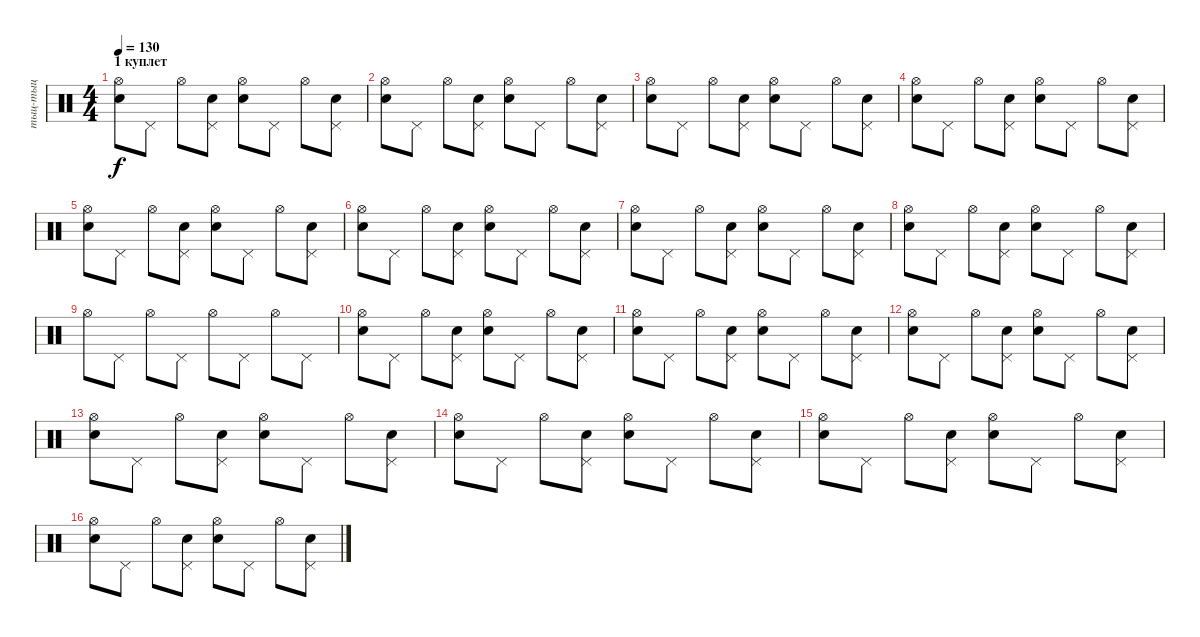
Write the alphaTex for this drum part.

\track ("тыц-тыц" "тыц-тыц") {instrument percussion}
\staff {score}
\articulation defaults
\ts (4 4)
\section ("" "1 куплет")
\tempo 130
\clef neutral
\ks c
("Hi-Hat (open)" "Snare (hit) 2").8{dy f} "Pedal Hi-Hat (hit)".8 "Hi-Hat (open)".8 ("Pedal Hi-Hat (hit)" "Snare (hit) 2").8 ("Hi-Hat (open)" "Snare (hit) 2").8 "Pedal Hi-Hat (hit)".8 "Hi-Hat (open)".8 ("Pedal Hi-Hat (hit)" "Snare (hit) 2").8 |
("Hi-Hat (open)" "Snare (hit) 2").8 "Pedal Hi-Hat (hit)".8 "Hi-Hat (open)".8 ("Pedal Hi-Hat (hit)" "Snare (hit) 2").8 ("Hi-Hat (open)" "Snare (hit) 2").8 "Pedal Hi-Hat (hit)".8 "Hi-Hat (open)".8 ("Pedal Hi-Hat (hit)" "Snare (hit) 2").8 |
("Hi-Hat (open)" "Snare (hit) 2").8 "Pedal Hi-Hat (hit)".8 "Hi-Hat (open)".8 ("Pedal Hi-Hat (hit)" "Snare (hit) 2").8 ("Hi-Hat (open)" "Snare (hit) 2").8 "Pedal Hi-Hat (hit)".8 "Hi-Hat (open)".8 ("Pedal Hi-Hat (hit)" "Snare (hit) 2").8 |
("Hi-Hat (open)" "Snare (hit) 2").8 "Pedal Hi-Hat (hit)".8 "Hi-Hat (open)".8 ("Pedal Hi-Hat (hit)" "Snare (hit) 2").8 ("Hi-Hat (open)" "Snare (hit) 2").8 "Pedal Hi-Hat (hit)".8 "Hi-Hat (open)".8 ("Pedal Hi-Hat (hit)" "Snare (hit) 2").8 |
("Hi-Hat (open)" "Snare (hit) 2").8 "Pedal Hi-Hat (hit)".8 "Hi-Hat (open)".8 ("Pedal Hi-Hat (hit)" "Snare (hit) 2").8 ("Hi-Hat (open)" "Snare (hit) 2").8 "Pedal Hi-Hat (hit)".8 "Hi-Hat (open)".8 ("Pedal Hi-Hat (hit)" "Snare (hit) 2").8 |
("Hi-Hat (open)" "Snare (hit) 2").8 "Pedal Hi-Hat (hit)".8 "Hi-Hat (open)".8 ("Pedal Hi-Hat (hit)" "Snare (hit) 2").8 ("Hi-Hat (open)" "Snare (hit) 2").8 "Pedal Hi-Hat (hit)".8 "Hi-Hat (open)".8 ("Pedal Hi-Hat (hit)" "Snare (hit) 2").8 |
("Hi-Hat (open)" "Snare (hit) 2").8 "Pedal Hi-Hat (hit)".8 "Hi-Hat (open)".8 ("Pedal Hi-Hat (hit)" "Snare (hit) 2").8 ("Hi-Hat (open)" "Snare (hit) 2").8 "Pedal Hi-Hat (hit)".8 "Hi-Hat (open)".8 ("Pedal Hi-Hat (hit)" "Snare (hit) 2").8 |
("Hi-Hat (open)" "Snare (hit) 2").8 "Pedal Hi-Hat (hit)".8 "Hi-Hat (open)".8 ("Pedal Hi-Hat (hit)" "Snare (hit) 2").8 ("Hi-Hat (open)" "Snare (hit) 2").8 "Pedal Hi-Hat (hit)".8 "Hi-Hat (open)".8 ("Pedal Hi-Hat (hit)" "Snare (hit) 2").8 |
"Hi-Hat (open)".8 "Pedal Hi-Hat (hit)".8 "Hi-Hat (open)".8 "Pedal Hi-Hat (hit)".8 "Hi-Hat (open)".8 "Pedal Hi-Hat (hit)".8 "Hi-Hat (open)".8 "Pedal Hi-Hat (hit)".8 |
("Hi-Hat (open)" "Snare (hit) 2").8 "Pedal Hi-Hat (hit)".8 "Hi-Hat (open)".8 ("Pedal Hi-Hat (hit)" "Snare (hit) 2").8 ("Hi-Hat (open)" "Snare (hit) 2").8 "Pedal Hi-Hat (hit)".8 "Hi-Hat (open)".8 ("Pedal Hi-Hat (hit)" "Snare (hit) 2").8 |
("Hi-Hat (open)" "Snare (hit) 2").8 "Pedal Hi-Hat (hit)".8 "Hi-Hat (open)".8 ("Pedal Hi-Hat (hit)" "Snare (hit) 2").8 ("Hi-Hat (open)" "Snare (hit) 2").8 "Pedal Hi-Hat (hit)".8 "Hi-Hat (open)".8 ("Pedal Hi-Hat (hit)" "Snare (hit) 2").8 |
("Hi-Hat (open)" "Snare (hit) 2").8 "Pedal Hi-Hat (hit)".8 "Hi-Hat (open)".8 ("Pedal Hi-Hat (hit)" "Snare (hit) 2").8 ("Hi-Hat (open)" "Snare (hit) 2").8 "Pedal Hi-Hat (hit)".8 "Hi-Hat (open)".8 ("Pedal Hi-Hat (hit)" "Snare (hit) 2").8 |
("Hi-Hat (open)" "Snare (hit) 2").8 "Pedal Hi-Hat (hit)".8 "Hi-Hat (open)".8 ("Pedal Hi-Hat (hit)" "Snare (hit) 2").8 ("Hi-Hat (open)" "Snare (hit) 2").8 "Pedal Hi-Hat (hit)".8 "Hi-Hat (open)".8 ("Pedal Hi-Hat (hit)" "Snare (hit) 2").8 |
("Hi-Hat (open)" "Snare (hit) 2").8 "Pedal Hi-Hat (hit)".8 "Hi-Hat (open)".8 ("Pedal Hi-Hat (hit)" "Snare (hit) 2").8 ("Hi-Hat (open)" "Snare (hit) 2").8 "Pedal Hi-Hat (hit)".8 "Hi-Hat (open)".8 ("Pedal Hi-Hat (hit)" "Snare (hit) 2").8 |
("Hi-Hat (open)" "Snare (hit) 2").8 "Pedal Hi-Hat (hit)".8 "Hi-Hat (open)".8 ("Pedal Hi-Hat (hit)" "Snare (hit) 2").8 ("Hi-Hat (open)" "Snare (hit) 2").8 "Pedal Hi-Hat (hit)".8 "Hi-Hat (open)".8 ("Pedal Hi-Hat (hit)" "Snare (hit) 2").8 |
("Hi-Hat (open)" "Snare (hit) 2").8 "Pedal Hi-Hat (hit)".8 "Hi-Hat (open)".8 ("Pedal Hi-Hat (hit)" "Snare (hit) 2").8 ("Hi-Hat (open)" "Snare (hit) 2").8 "Pedal Hi-Hat (hit)".8 "Hi-Hat (open)".8 ("Pedal Hi-Hat (hit)" "Snare (hit) 2").8
